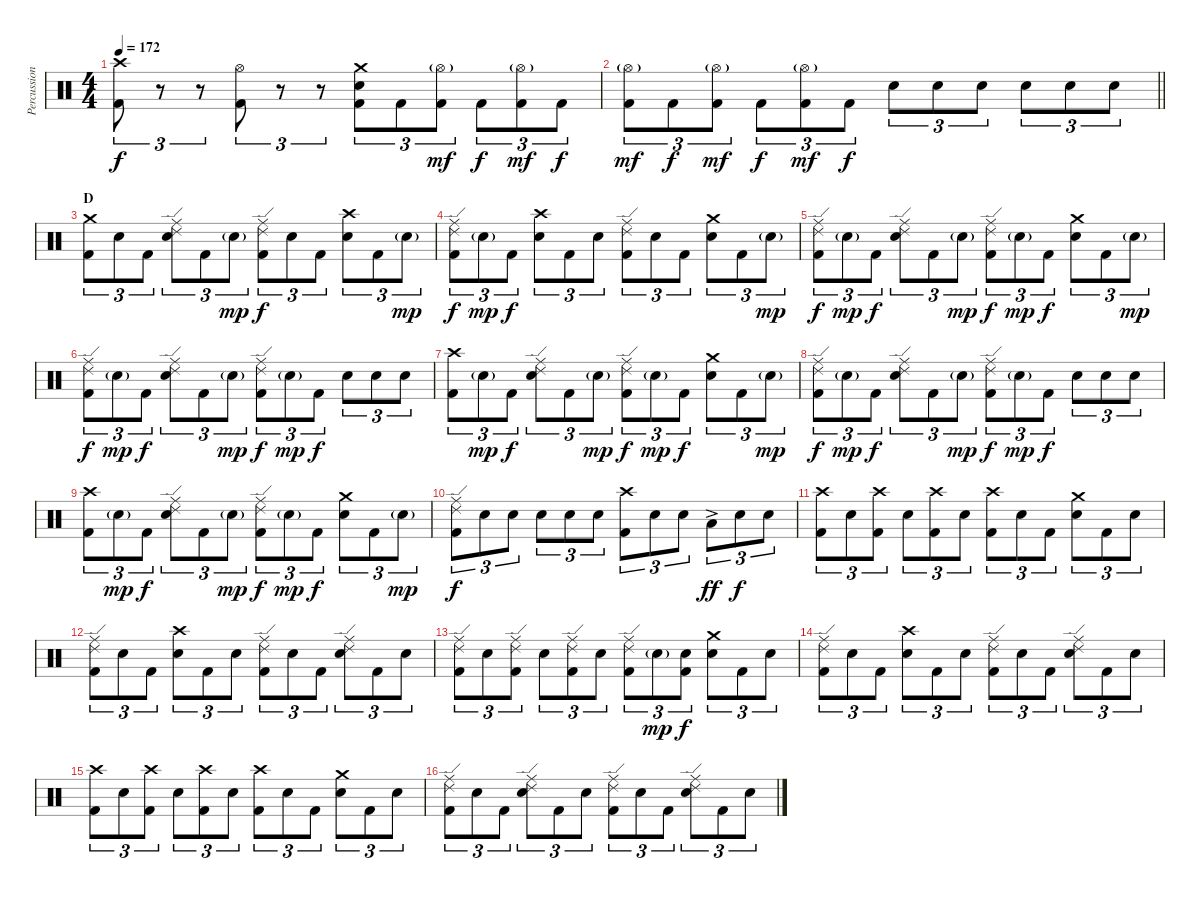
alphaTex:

\track ("Percussion" "Percussion") {instrument percussion}
\staff {score}
\articulation defaults
\ts (4 4)
\tempo 172
\clef neutral
\ks c
("Crash high (hit)" "Kick (hit) 2").8{tu (3 2) dy f} r.8{tu (3 2)} r.8{tu (3 2)} ("Hi-Hat (open)" "Kick (hit) 2").8{tu (3 2)} r.8{tu (3 2)} r.8{tu (3 2)} ("Crash medium (hit)" "Electric Snare (hit)" "Kick (hit) 2").8{tu (3 2)} "Kick (hit) 2".8{tu (3 2)} ("Hi-Hat (open)"{g} "Kick (hit) 2").8{tu (3 2) dy mf} "Kick (hit) 2".8{tu (3 2) dy f} ("Hi-Hat (open)"{g} "Kick (hit) 2").8{tu (3 2) dy mf} "Kick (hit) 2".8{tu (3 2) dy f} |
\barLineRight lightlight
("Hi-Hat (open)"{g} "Kick (hit) 2").8{tu (3 2) dy mf} "Kick (hit) 2".8{tu (3 2) dy f} ("Hi-Hat (open)"{g} "Kick (hit) 2").8{tu (3 2) dy mf} "Kick (hit) 2".8{tu (3 2) dy f} ("Hi-Hat (open)"{g} "Kick (hit) 2").8{tu (3 2) dy mf} "Kick (hit) 2".8{tu (3 2) dy f} "Electric Snare (hit)".8{tu (3 2)} "Electric Snare (hit)".8{tu (3 2)} "Electric Snare (hit)".8{tu (3 2)} "Electric Snare (hit)".8{tu (3 2)} "Electric Snare (hit)".8{tu (3 2)} "Electric Snare (hit)".8{tu (3 2)} |
\section ("" "D")
("Crash medium (hit)" "Kick (hit) 2").8{tu (3 2)} "Electric Snare (hit)".8{tu (3 2)} "Kick (hit) 2".8{tu (3 2)} ("Ride (edge) 2" "Ride (middle)" "Electric Snare (hit)").8{tu (3 2)} "Kick (hit) 2".8{tu (3 2)} "Electric Snare (hit)"{g}.8{tu (3 2) dy mp} ("Ride (edge) 2" "Ride (middle)" "Kick (hit) 2").8{tu (3 2) dy f} "Electric Snare (hit)".8{tu (3 2)} "Kick (hit) 2".8{tu (3 2)} ("Crash high (hit)" "Electric Snare (hit)").8{tu (3 2)} "Kick (hit) 2".8{tu (3 2)} "Electric Snare (hit)"{g}.8{tu (3 2) dy mp} |
("Ride (edge) 2" "Ride (middle)" "Kick (hit) 2").8{tu (3 2) dy f} "Electric Snare (hit)"{g}.8{tu (3 2) dy mp} "Kick (hit) 2".8{tu (3 2) dy f} ("Crash high (hit)" "Electric Snare (hit)").8{tu (3 2)} "Kick (hit) 2".8{tu (3 2)} "Electric Snare (hit)".8{tu (3 2)} ("Ride (edge) 2" "Ride (middle)" "Kick (hit) 2").8{tu (3 2)} "Electric Snare (hit)".8{tu (3 2)} "Kick (hit) 2".8{tu (3 2)} ("Crash medium (hit)" "Electric Snare (hit)").8{tu (3 2)} "Kick (hit) 2".8{tu (3 2)} "Electric Snare (hit)"{g}.8{tu (3 2) dy mp} |
("Ride (edge) 2" "Ride (middle)" "Kick (hit) 2").8{tu (3 2) dy f} "Electric Snare (hit)"{g}.8{tu (3 2) dy mp} "Kick (hit) 2".8{tu (3 2) dy f} ("Ride (edge) 2" "Ride (middle)" "Electric Snare (hit)").8{tu (3 2)} "Kick (hit) 2".8{tu (3 2)} "Electric Snare (hit)"{g}.8{tu (3 2) dy mp} ("Ride (edge) 2" "Ride (middle)" "Kick (hit) 2").8{tu (3 2) dy f} "Electric Snare (hit)"{g}.8{tu (3 2) dy mp} "Kick (hit) 2".8{tu (3 2) dy f} ("Crash medium (hit)" "Electric Snare (hit)").8{tu (3 2)} "Kick (hit) 2".8{tu (3 2)} "Electric Snare (hit)"{g}.8{tu (3 2) dy mp} |
("Ride (edge) 2" "Ride (middle)" "Kick (hit) 2").8{tu (3 2) dy f} "Electric Snare (hit)"{g}.8{tu (3 2) dy mp} "Kick (hit) 2".8{tu (3 2) dy f} ("Ride (edge) 2" "Ride (middle)" "Electric Snare (hit)").8{tu (3 2)} "Kick (hit) 2".8{tu (3 2)} "Electric Snare (hit)"{g}.8{tu (3 2) dy mp} ("Ride (edge) 2" "Ride (middle)" "Kick (hit) 2").8{tu (3 2) dy f} "Electric Snare (hit)"{g}.8{tu (3 2) dy mp} "Kick (hit) 2".8{tu (3 2) dy f} "Electric Snare (hit)".8{tu (3 2)} "Electric Snare (hit)".8{tu (3 2)} "Electric Snare (hit)".8{tu (3 2)} |
("Crash high (hit)" "Kick (hit) 2").8{tu (3 2)} "Electric Snare (hit)"{g}.8{tu (3 2) dy mp} "Kick (hit) 2".8{tu (3 2) dy f} ("Ride (edge) 2" "Ride (middle)" "Electric Snare (hit)").8{tu (3 2)} "Kick (hit) 2".8{tu (3 2)} "Electric Snare (hit)"{g}.8{tu (3 2) dy mp} ("Ride (edge) 2" "Ride (middle)" "Kick (hit) 2").8{tu (3 2) dy f} "Electric Snare (hit)"{g}.8{tu (3 2) dy mp} "Kick (hit) 2".8{tu (3 2) dy f} ("Crash medium (hit)" "Electric Snare (hit)").8{tu (3 2)} "Kick (hit) 2".8{tu (3 2)} "Electric Snare (hit)"{g}.8{tu (3 2) dy mp} |
("Ride (edge) 2" "Ride (middle)" "Kick (hit) 2").8{tu (3 2) dy f} "Electric Snare (hit)"{g}.8{tu (3 2) dy mp} "Kick (hit) 2".8{tu (3 2) dy f} ("Ride (edge) 2" "Ride (middle)" "Electric Snare (hit)").8{tu (3 2)} "Kick (hit) 2".8{tu (3 2)} "Electric Snare (hit)"{g}.8{tu (3 2) dy mp} ("Ride (edge) 2" "Ride (middle)" "Kick (hit) 2").8{tu (3 2) dy f} "Electric Snare (hit)"{g}.8{tu (3 2) dy mp} "Kick (hit) 2".8{tu (3 2) dy f} "Electric Snare (hit)".8{tu (3 2)} "Electric Snare (hit)".8{tu (3 2)} "Electric Snare (hit)".8{tu (3 2)} |
("Crash high (hit)" "Kick (hit) 2").8{tu (3 2)} "Electric Snare (hit)"{g}.8{tu (3 2) dy mp} "Kick (hit) 2".8{tu (3 2) dy f} ("Ride (edge) 2" "Ride (middle)" "Electric Snare (hit)").8{tu (3 2)} "Kick (hit) 2".8{tu (3 2)} "Electric Snare (hit)"{g}.8{tu (3 2) dy mp} ("Ride (edge) 2" "Ride (middle)" "Kick (hit) 2").8{tu (3 2) dy f} "Electric Snare (hit)"{g}.8{tu (3 2) dy mp} "Kick (hit) 2".8{tu (3 2) dy f} ("Crash medium (hit)" "Electric Snare (hit)").8{tu (3 2)} "Kick (hit) 2".8{tu (3 2)} "Electric Snare (hit)"{g}.8{tu (3 2) dy mp} |
("Ride (edge) 2" "Ride (middle)" "Kick (hit) 2").8{tu (3 2) dy f} "Electric Snare (hit)".8{tu (3 2)} "Electric Snare (hit)".8{tu (3 2)} "Electric Snare (hit)".8{tu (3 2)} "Electric Snare (hit)".8{tu (3 2)} "Electric Snare (hit)".8{tu (3 2)} ("Crash high (hit)" "Kick (hit) 2").8{tu (3 2)} "Electric Snare (hit)".8{tu (3 2)} "Electric Snare (hit)".8{tu (3 2)} "Low Tom (hit)"{ac}.8{tu (3 2) dy ff} "Electric Snare (hit)".8{tu (3 2) dy f} "Electric Snare (hit)".8{tu (3 2)} |
("Crash high (hit)" "Kick (hit) 2").8{tu (3 2)} "Electric Snare (hit)".8{tu (3 2)} ("Crash high (hit)" "Kick (hit) 2").8{tu (3 2)} "Electric Snare (hit)".8{tu (3 2)} ("Crash high (hit)" "Kick (hit) 2").8{tu (3 2)} "Electric Snare (hit)".8{tu (3 2)} ("Crash high (hit)" "Kick (hit) 2").8{tu (3 2)} "Electric Snare (hit)".8{tu (3 2)} "Kick (hit) 2".8{tu (3 2)} ("Crash medium (hit)" "Electric Snare (hit)").8{tu (3 2)} "Kick (hit) 2".8{tu (3 2)} "Electric Snare (hit)".8{tu (3 2)} |
("Ride (edge) 2" "Ride (middle)" "Kick (hit) 2").8{tu (3 2)} "Electric Snare (hit)".8{tu (3 2)} "Kick (hit) 2".8{tu (3 2)} ("Crash high (hit)" "Electric Snare (hit)").8{tu (3 2)} "Kick (hit) 2".8{tu (3 2)} "Electric Snare (hit)".8{tu (3 2)} ("Ride (edge) 2" "Ride (middle)" "Kick (hit) 2").8{tu (3 2)} "Electric Snare (hit)".8{tu (3 2)} "Kick (hit) 2".8{tu (3 2)} ("Ride (edge) 2" "Ride (middle)" "Electric Snare (hit)").8{tu (3 2)} "Kick (hit) 2".8{tu (3 2)} "Electric Snare (hit)".8{tu (3 2)} |
("Ride (edge) 2" "Ride (middle)" "Kick (hit) 2").8{tu (3 2)} "Electric Snare (hit)".8{tu (3 2)} ("Ride (edge) 2" "Ride (middle)" "Kick (hit) 2").8{tu (3 2)} "Electric Snare (hit)".8{tu (3 2)} ("Ride (edge) 2" "Ride (middle)" "Kick (hit) 2").8{tu (3 2)} "Electric Snare (hit)".8{tu (3 2)} ("Ride (edge) 2" "Ride (middle)" "Kick (hit) 2").8{tu (3 2)} "Electric Snare (hit)"{g}.8{tu (3 2) dy mp} ("Electric Snare (hit)" "Kick (hit) 2").8{tu (3 2) dy f} ("Crash medium (hit)" "Electric Snare (hit)").8{tu (3 2)} "Kick (hit) 2".8{tu (3 2)} "Electric Snare (hit)".8{tu (3 2)} |
("Ride (edge) 2" "Ride (middle)" "Kick (hit) 2").8{tu (3 2)} "Electric Snare (hit)".8{tu (3 2)} "Kick (hit) 2".8{tu (3 2)} ("Crash high (hit)" "Electric Snare (hit)").8{tu (3 2)} "Kick (hit) 2".8{tu (3 2)} "Electric Snare (hit)".8{tu (3 2)} ("Ride (edge) 2" "Ride (middle)" "Kick (hit) 2").8{tu (3 2)} "Electric Snare (hit)".8{tu (3 2)} "Kick (hit) 2".8{tu (3 2)} ("Ride (edge) 2" "Ride (middle)" "Electric Snare (hit)").8{tu (3 2)} "Kick (hit) 2".8{tu (3 2)} "Electric Snare (hit)".8{tu (3 2)} |
("Crash high (hit)" "Kick (hit) 2").8{tu (3 2)} "Electric Snare (hit)".8{tu (3 2)} ("Crash high (hit)" "Kick (hit) 2").8{tu (3 2)} "Electric Snare (hit)".8{tu (3 2)} ("Crash high (hit)" "Kick (hit) 2").8{tu (3 2)} "Electric Snare (hit)".8{tu (3 2)} ("Crash high (hit)" "Kick (hit) 2").8{tu (3 2)} "Electric Snare (hit)".8{tu (3 2)} "Kick (hit) 2".8{tu (3 2)} ("Crash medium (hit)" "Electric Snare (hit)").8{tu (3 2)} "Kick (hit) 2".8{tu (3 2)} "Electric Snare (hit)".8{tu (3 2)} |
("Ride (edge) 2" "Ride (middle)" "Kick (hit) 2").8{tu (3 2)} "Electric Snare (hit)".8{tu (3 2)} "Kick (hit) 2".8{tu (3 2)} ("Ride (edge) 2" "Ride (middle)" "Electric Snare (hit)").8{tu (3 2)} "Kick (hit) 2".8{tu (3 2)} "Electric Snare (hit)".8{tu (3 2)} ("Ride (edge) 2" "Ride (middle)" "Kick (hit) 2").8{tu (3 2)} "Electric Snare (hit)".8{tu (3 2)} "Kick (hit) 2".8{tu (3 2)} ("Ride (edge) 2" "Ride (middle)" "Electric Snare (hit)").8{tu (3 2)} "Kick (hit) 2".8{tu (3 2)} "Electric Snare (hit)".8{tu (3 2)}
